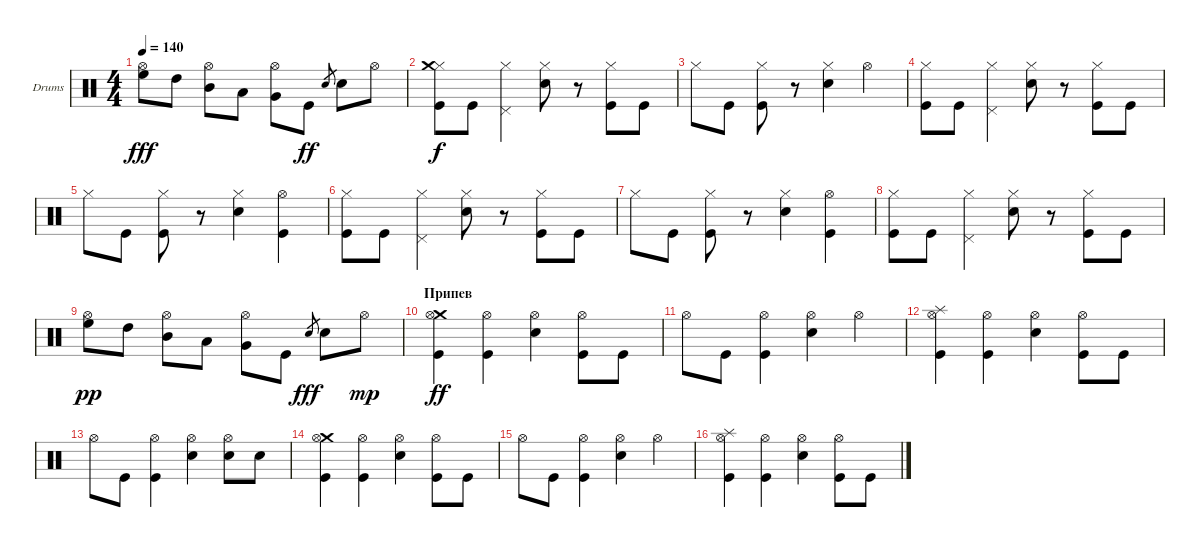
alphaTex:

\defaultSystemsLayout 4
\bracketExtendMode groupsimilarinstruments
\firstSystemTrackNameOrientation horizontal
\otherSystemsTrackNameOrientation horizontal
\track ("Drumkit" "Drums") {instrument percussion}
\staff {score}
\articulation defaults
\ts (4 4)
\tempo 140
\clef neutral
\scale
0.333333
\ks c
("High Floor Tom (hit)" "Hi-Hat (open)").8{dy fff} "High Tom (hit)".8 ("Mid Tom (hit)" "Hi-Hat (open)").8 "Low Tom (hit)".8 ("Very Low Tom (hit)" "Hi-Hat (open)").8 "Kick (hit)".8{dy ff} "Snare (hit) 2".8{gr} "Snare (hit) 2".8 "Hi-Hat (open)".8 |
\scale
0.333333 ("Kick (hit)" "Hi-Hat (closed)" "Crash medium (hit)").8{dy f} "Kick (hit)".8 ("Pedal Hi-Hat (hit)" "Hi-Hat (closed)").4 ("Snare (hit) 2" "Hi-Hat (closed)").8 r.8 ("Kick (hit)" "Hi-Hat (closed)").8 "Kick (hit)".8 |
\scale
0.333333 "Hi-Hat (closed)".8 "Kick (hit)".8 ("Kick (hit)" "Hi-Hat (closed)").8 r.8 ("Snare (hit) 2" "Hi-Hat (closed)").4 "Hi-Hat (open)".4 |
\scale
0.333333 ("Kick (hit)" "Hi-Hat (closed)").8 "Kick (hit)".8 ("Pedal Hi-Hat (hit)" "Hi-Hat (closed)").4 ("Snare (hit) 2" "Hi-Hat (closed)").8 r.8 ("Kick (hit)" "Hi-Hat (closed)").8 "Kick (hit)".8 |
\scale
0.333333 "Hi-Hat (closed)".8 "Kick (hit)".8 ("Kick (hit)" "Hi-Hat (closed)").8 r.8 ("Snare (hit) 2" "Hi-Hat (closed)").4 ("Hi-Hat (open)" "Kick (hit)").4 |
\scale
0.333333 ("Kick (hit)" "Hi-Hat (closed)").8 "Kick (hit)".8 ("Pedal Hi-Hat (hit)" "Hi-Hat (closed)").4 ("Snare (hit) 2" "Hi-Hat (closed)").8 r.8 ("Kick (hit)" "Hi-Hat (closed)").8 "Kick (hit)".8 |
\scale
0.333333 "Hi-Hat (closed)".8 "Kick (hit)".8 ("Kick (hit)" "Hi-Hat (closed)").8 r.8 ("Snare (hit) 2" "Hi-Hat (closed)").4 ("Hi-Hat (open)" "Kick (hit)").4 |
\scale
0.333333 ("Kick (hit)" "Hi-Hat (closed)").8 "Kick (hit)".8 ("Pedal Hi-Hat (hit)" "Hi-Hat (closed)").4 ("Snare (hit) 2" "Hi-Hat (closed)").8 r.8 ("Kick (hit)" "Hi-Hat (closed)").8 "Kick (hit)".8 |
\scale
0.333333 ("High Floor Tom (hit)" "Hi-Hat (open)").8{dy pp} "High Tom (hit)".8 ("Mid Tom (hit)" "Hi-Hat (open)").8 "Low Tom (hit)".8 ("Very Low Tom (hit)" "Hi-Hat (open)").8 "Kick (hit)".8 "Snare (hit) 2".8{gr dy fff} "Snare (hit) 2".8 "Hi-Hat (open)".8{dy mp} |
\section ("" "Припев")
\scale
0.333333 ("Kick (hit)" "Crash medium (hit)" "Hi-Hat (open)").4{dy ff} ("Hi-Hat (open)" "Kick (hit)").4 ("Hi-Hat (open)" "Snare (hit) 2").4 ("Kick (hit)" "Hi-Hat (open)").8 "Kick (hit)".8 |
\scale
0.333333 "Hi-Hat (open)".8 "Kick (hit)".8 ("Kick (hit)" "Hi-Hat (open)").4 ("Snare (hit) 2" "Hi-Hat (open)").4 "Hi-Hat (open)".4 |
\scale
0.333333 ("Kick (hit)" "Hi-Hat (open)" "Splash (hit)").4 ("Hi-Hat (open)" "Kick (hit)").4 ("Hi-Hat (open)" "Snare (hit) 2").4 ("Kick (hit)" "Hi-Hat (open)").8 "Kick (hit)".8 |
\scale
0.333333 "Hi-Hat (open)".8 "Kick (hit)".8 ("Kick (hit)" "Hi-Hat (open)").4 ("Snare (hit) 2" "Hi-Hat (open)").4 ("Hi-Hat (open)" "Snare (hit) 2").8 "Snare (hit) 2".8 |
\scale
0.333333 ("Kick (hit)" "Crash medium (hit)" "Hi-Hat (open)").4 ("Hi-Hat (open)" "Kick (hit)").4 ("Hi-Hat (open)" "Snare (hit) 2").4 ("Kick (hit)" "Hi-Hat (open)").8 "Kick (hit)".8 |
\scale
0.333333 "Hi-Hat (open)".8 "Kick (hit)".8 ("Kick (hit)" "Hi-Hat (open)").4 ("Snare (hit) 2" "Hi-Hat (open)").4 "Hi-Hat (open)".4 |
\scale
0.333333 ("Kick (hit)" "Hi-Hat (open)" "Splash (hit)").4 ("Hi-Hat (open)" "Kick (hit)").4 ("Hi-Hat (open)" "Snare (hit) 2").4 ("Kick (hit)" "Hi-Hat (open)").8 "Kick (hit)".8
